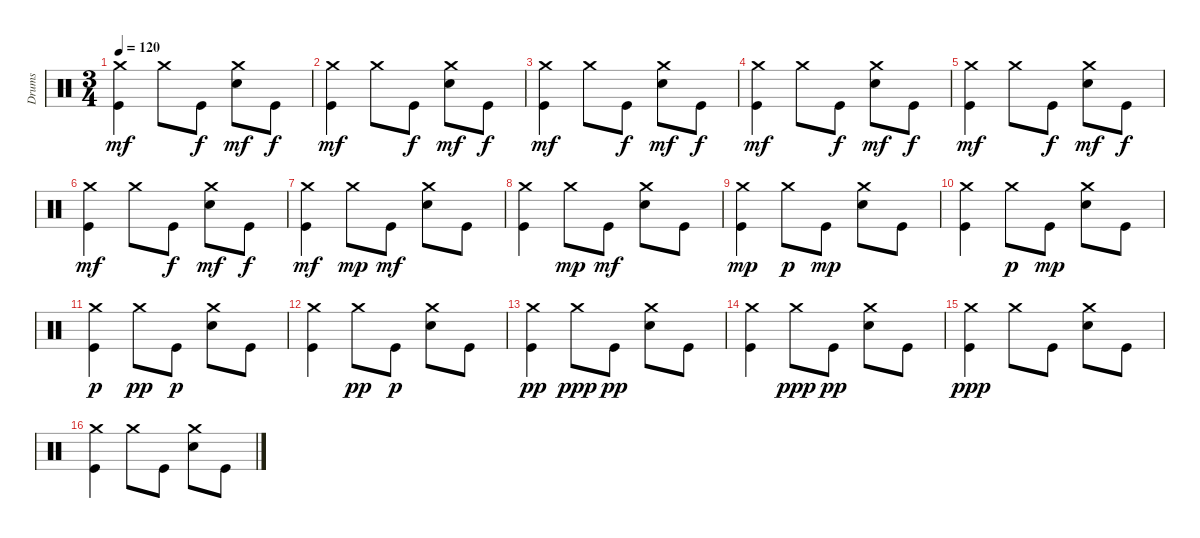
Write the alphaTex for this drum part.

\track ("Drums" "Drums") {instrument percussion}
\staff {score}
\articulation defaults
\ts (3 4)
\tempo 120
\clef neutral
\ks c
("Crash medium (hit)" "Kick (hit)").4{dy mf balance 0} "Crash medium (hit)".8{balance 1} "Kick (hit)".8{dy f} ("Crash medium (hit)" "Snare (hit) 2").8{dy mf balance 2} "Kick (hit)".8{dy f} |
("Crash medium (hit)" "Kick (hit)").4{dy mf balance 3} "Crash medium (hit)".8{balance 4} "Kick (hit)".8{dy f} ("Crash medium (hit)" "Snare (hit) 2").8{dy mf balance 5} "Kick (hit)".8{dy f} |
("Crash medium (hit)" "Kick (hit)").4{dy mf balance 6} "Crash medium (hit)".8{balance 7} "Kick (hit)".8{dy f} ("Crash medium (hit)" "Snare (hit) 2").8{dy mf balance 8} "Kick (hit)".8{dy f} |
("Crash medium (hit)" "Kick (hit)").4{dy mf balance 8} "Crash medium (hit)".8{balance 9} "Kick (hit)".8{dy f} ("Crash medium (hit)" "Snare (hit) 2").8{dy mf balance 10} "Kick (hit)".8{dy f} |
("Crash medium (hit)" "Kick (hit)").4{dy mf balance 11} "Crash medium (hit)".8{balance 12} "Kick (hit)".8{dy f} ("Crash medium (hit)" "Snare (hit) 2").8{dy mf balance 13} "Kick (hit)".8{dy f} |
("Crash medium (hit)" "Kick (hit)").4{dy mf balance 14} "Crash medium (hit)".8{balance 15} "Kick (hit)".8{dy f} ("Crash medium (hit)" "Snare (hit) 2").8{dy mf balance 16} "Kick (hit)".8{dy f} |
("Crash medium (hit)" "Kick (hit)").4{dy mf balance 16} "Crash medium (hit)".8{dy mp balance 15} "Kick (hit)".8{dy mf} ("Crash medium (hit)" "Snare (hit) 2").8{balance 14} "Kick (hit)".8 |
("Crash medium (hit)" "Kick (hit)").4{balance 13} "Crash medium (hit)".8{dy mp balance 12} "Kick (hit)".8{dy mf} ("Crash medium (hit)" "Snare (hit) 2").8{balance 11} "Kick (hit)".8 |
("Crash medium (hit)" "Kick (hit)").4{dy mp balance 10} "Crash medium (hit)".8{dy p balance 9} "Kick (hit)".8{dy mp} ("Crash medium (hit)" "Snare (hit) 2").8{balance 8} "Kick (hit)".8 |
("Crash medium (hit)" "Kick (hit)").4{balance 8} "Crash medium (hit)".8{dy p balance 9} "Kick (hit)".8{dy mp} ("Crash medium (hit)" "Snare (hit) 2").8{balance 10} "Kick (hit)".8 |
("Crash medium (hit)" "Kick (hit)").4{dy p balance 11} "Crash medium (hit)".8{dy pp balance 12} "Kick (hit)".8{dy p} ("Crash medium (hit)" "Snare (hit) 2").8{balance 13} "Kick (hit)".8 |
("Crash medium (hit)" "Kick (hit)").4{balance 14} "Crash medium (hit)".8{dy pp balance 15} "Kick (hit)".8{dy p} ("Crash medium (hit)" "Snare (hit) 2").8{balance 16} "Kick (hit)".8 |
("Crash medium (hit)" "Kick (hit)").4{dy pp balance 0} "Crash medium (hit)".8{dy ppp balance 1} "Kick (hit)".8{dy pp} ("Crash medium (hit)" "Snare (hit) 2").8{balance 2} "Kick (hit)".8 |
("Crash medium (hit)" "Kick (hit)").4{balance 3} "Crash medium (hit)".8{dy ppp balance 4} "Kick (hit)".8{dy pp} ("Crash medium (hit)" "Snare (hit) 2").8{balance 5} "Kick (hit)".8 |
("Crash medium (hit)" "Kick (hit)").4{dy ppp balance 6} "Crash medium (hit)".8{balance 7} "Kick (hit)".8 ("Crash medium (hit)" "Snare (hit) 2").8{balance 8} "Kick (hit)".8 |
("Crash medium (hit)" "Kick (hit)").4{balance 8} "Crash medium (hit)".8{balance 9} "Kick (hit)".8 ("Crash medium (hit)" "Snare (hit) 2").8{balance 10} "Kick (hit)".8
